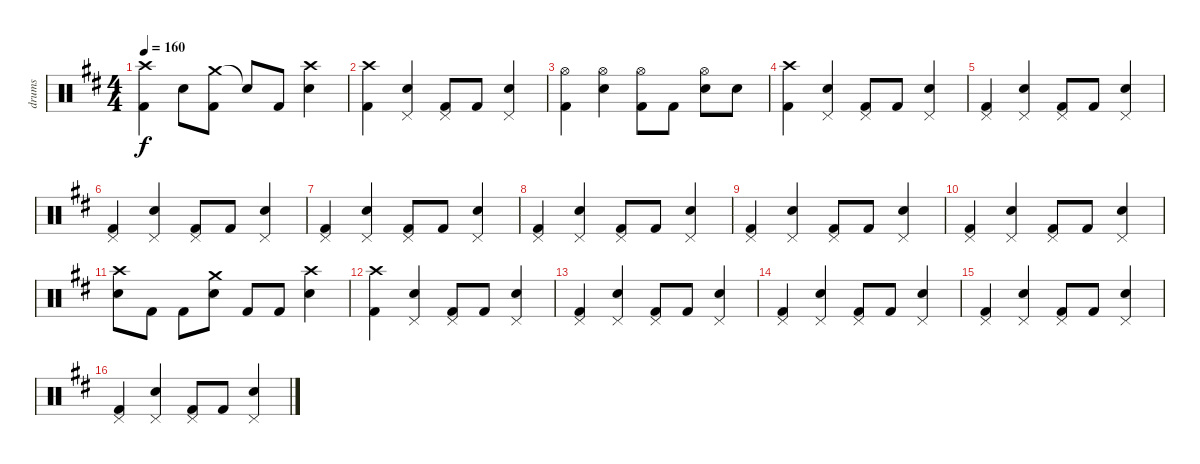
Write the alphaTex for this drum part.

\track ("drums" "drums") {instrument percussion}
\staff {score}
\articulation defaults
\ts (4 4)
\tempo 160
\clef neutral
\ks bminor
("Crash high (hit)" "Kick (hit) 2").4{dy f} "Snare (hit) 2".8 ("Crash medium (hit)" "Kick (hit) 2").8 "Snare (hit)"{t}.8 "Kick (hit) 2".8 ("Crash high (hit)" "Snare (hit) 2").4 |
("Crash high (hit)" "Kick (hit) 2").4 ("Pedal Hi-Hat (hit)" "Snare (hit) 2").4 ("Pedal Hi-Hat (hit)" "Kick (hit) 2").8 "Kick (hit) 2".8 ("Pedal Hi-Hat (hit)" "Snare (hit) 2").4 |
("Hi-Hat (open)" "Kick (hit) 2").4 ("Hi-Hat (open)" "Snare (hit) 2").4 ("Hi-Hat (open)" "Kick (hit) 2").8 "Kick (hit) 2".8 ("Hi-Hat (open)" "Snare (hit) 2").8 "Snare (hit) 2".8 |
("Crash high (hit)" "Kick (hit) 2").4 ("Pedal Hi-Hat (hit)" "Snare (hit) 2").4 ("Pedal Hi-Hat (hit)" "Kick (hit) 2").8 "Kick (hit) 2".8 ("Pedal Hi-Hat (hit)" "Snare (hit) 2").4 |
("Pedal Hi-Hat (hit)" "Kick (hit) 2").4 ("Pedal Hi-Hat (hit)" "Snare (hit) 2").4 ("Pedal Hi-Hat (hit)" "Kick (hit) 2").8 "Kick (hit) 2".8 ("Pedal Hi-Hat (hit)" "Snare (hit) 2").4 |
("Pedal Hi-Hat (hit)" "Kick (hit) 2").4 ("Pedal Hi-Hat (hit)" "Snare (hit) 2").4 ("Pedal Hi-Hat (hit)" "Kick (hit) 2").8 "Kick (hit) 2".8 ("Pedal Hi-Hat (hit)" "Snare (hit) 2").4 |
("Pedal Hi-Hat (hit)" "Kick (hit) 2").4 ("Pedal Hi-Hat (hit)" "Snare (hit) 2").4 ("Pedal Hi-Hat (hit)" "Kick (hit) 2").8 "Kick (hit) 2".8 ("Pedal Hi-Hat (hit)" "Snare (hit) 2").4 |
("Pedal Hi-Hat (hit)" "Kick (hit) 2").4 ("Pedal Hi-Hat (hit)" "Snare (hit) 2").4 ("Pedal Hi-Hat (hit)" "Kick (hit) 2").8 "Kick (hit) 2".8 ("Pedal Hi-Hat (hit)" "Snare (hit) 2").4 |
("Pedal Hi-Hat (hit)" "Kick (hit) 2").4 ("Pedal Hi-Hat (hit)" "Snare (hit) 2").4 ("Pedal Hi-Hat (hit)" "Kick (hit) 2").8 "Kick (hit) 2".8 ("Pedal Hi-Hat (hit)" "Snare (hit) 2").4 |
("Pedal Hi-Hat (hit)" "Kick (hit) 2").4 ("Pedal Hi-Hat (hit)" "Snare (hit) 2").4 ("Pedal Hi-Hat (hit)" "Kick (hit) 2").8 "Kick (hit) 2".8 ("Pedal Hi-Hat (hit)" "Snare (hit) 2").4 |
("Crash high (hit)" "Snare (hit) 2").8 "Kick (hit) 2".8 "Kick (hit) 2".8 ("Crash medium (hit)" "Snare (hit) 2").8 "Kick (hit) 2".8 "Kick (hit) 2".8 ("Crash high (hit)" "Snare (hit) 2").4 |
("Crash high (hit)" "Kick (hit) 2").4 ("Pedal Hi-Hat (hit)" "Snare (hit) 2").4 ("Pedal Hi-Hat (hit)" "Kick (hit) 2").8 "Kick (hit) 2".8 ("Pedal Hi-Hat (hit)" "Snare (hit) 2").4 |
("Pedal Hi-Hat (hit)" "Kick (hit) 2").4 ("Pedal Hi-Hat (hit)" "Snare (hit) 2").4 ("Pedal Hi-Hat (hit)" "Kick (hit) 2").8 "Kick (hit) 2".8 ("Pedal Hi-Hat (hit)" "Snare (hit) 2").4 |
("Pedal Hi-Hat (hit)" "Kick (hit) 2").4 ("Pedal Hi-Hat (hit)" "Snare (hit) 2").4 ("Pedal Hi-Hat (hit)" "Kick (hit) 2").8 "Kick (hit) 2".8 ("Pedal Hi-Hat (hit)" "Snare (hit) 2").4 |
("Pedal Hi-Hat (hit)" "Kick (hit) 2").4 ("Pedal Hi-Hat (hit)" "Snare (hit) 2").4 ("Pedal Hi-Hat (hit)" "Kick (hit) 2").8 "Kick (hit) 2".8 ("Pedal Hi-Hat (hit)" "Snare (hit) 2").4 |
("Pedal Hi-Hat (hit)" "Kick (hit) 2").4 ("Pedal Hi-Hat (hit)" "Snare (hit) 2").4 ("Pedal Hi-Hat (hit)" "Kick (hit) 2").8 "Kick (hit) 2".8 ("Pedal Hi-Hat (hit)" "Snare (hit) 2").4
